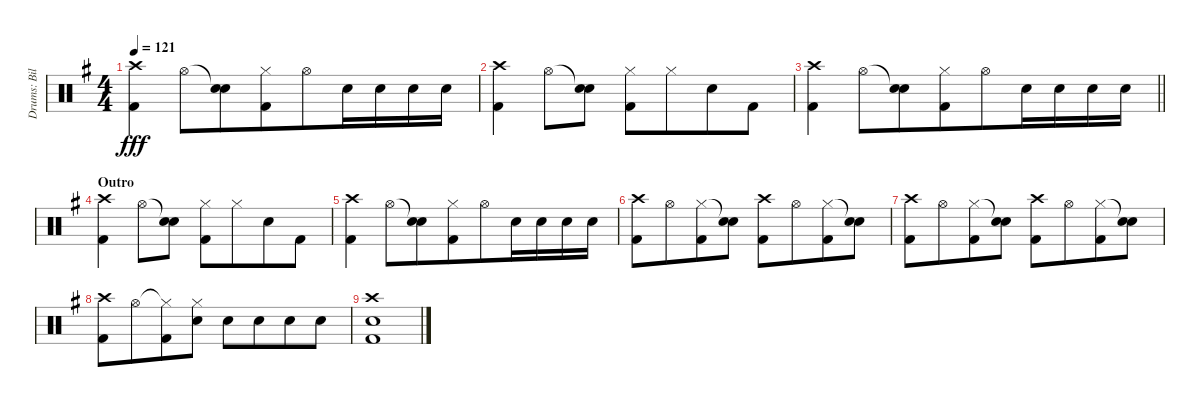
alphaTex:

\track ("Drums: Bill" "Drums: Bil") {instrument percussion}
\staff {score}
\articulation defaults
\ts (4 4)
\tempo 121
\clef neutral
\ks g
("Crash high (hit)" "Kick (hit) 2").4{dy fff beam merge} "Hi-Hat (open)".8{beam merge} ("Snare (hit)"{t} "Electric Snare (hit)").8{beam merge} ("Hi-Hat (closed)" "Kick (hit) 2").8{beam merge} "Hi-Hat (open)".8{beam merge} "Electric Snare (hit)".16{beam merge} "Electric Snare (hit)".16{beam merge} "Electric Snare (hit)".16{beam merge} "Electric Snare (hit)".16 |
("Crash high (hit)" "Kick (hit) 2").4{beam merge} "Hi-Hat (open)".8 ("Snare (hit)"{t} "Electric Snare (hit)").8 ("Hi-Hat (closed)" "Kick (hit) 2").8 "Hi-Hat (closed)".8{beam merge} "Electric Snare (hit)".8 "Kick (hit) 2".8 |
\barLineRight lightlight
("Crash high (hit)" "Kick (hit) 2").4{beam merge} "Hi-Hat (open)".8{beam merge} ("Snare (hit)"{t} "Electric Snare (hit)").8{beam merge} ("Hi-Hat (closed)" "Kick (hit) 2").8{beam merge} "Hi-Hat (open)".8{beam merge} "Electric Snare (hit)".16{beam merge} "Electric Snare (hit)".16{beam merge} "Electric Snare (hit)".16{beam merge} "Electric Snare (hit)".16 |
\section ("" "Outro")
("Crash high (hit)" "Kick (hit) 2").4{beam merge} "Hi-Hat (open)".8 ("Snare (hit)"{t} "Electric Snare (hit)").8 ("Hi-Hat (closed)" "Kick (hit) 2").8 "Hi-Hat (closed)".8{beam merge} "Electric Snare (hit)".8 "Kick (hit) 2".8 |
("Crash high (hit)" "Kick (hit) 2").4{beam merge} "Hi-Hat (open)".8{beam merge} ("Snare (hit)"{t} "Electric Snare (hit)").8{beam merge} ("Hi-Hat (closed)" "Kick (hit) 2").8{beam merge} "Hi-Hat (open)".8{beam merge} "Electric Snare (hit)".16{beam merge} "Electric Snare (hit)".16{beam merge} "Electric Snare (hit)".16{beam merge} "Electric Snare (hit)".16 |
("Crash high (hit)" "Kick (hit) 2").8{beam merge} "Hi-Hat (open)".8{beam merge} ("Hi-Hat (closed)" "Kick (hit) 2").8{beam merge} ("Snare (hit)"{t} "Electric Snare (hit)").8 ("Crash high (hit)" "Kick (hit) 2").8{beam merge} "Hi-Hat (open)".8{beam merge} ("Hi-Hat (closed)" "Kick (hit) 2").8{beam merge} ("Snare (hit)"{t} "Electric Snare (hit)").8 |
("Crash high (hit)" "Kick (hit) 2").8{beam merge} "Hi-Hat (open)".8{beam merge} ("Hi-Hat (closed)" "Kick (hit) 2").8{beam merge} ("Snare (hit)"{t} "Electric Snare (hit)").8 ("Crash high (hit)" "Kick (hit) 2").8{beam merge} "Hi-Hat (open)".8{beam merge} ("Hi-Hat (closed)" "Kick (hit) 2").8{beam merge} ("Snare (hit)"{t} "Electric Snare (hit)").8 |
("Crash high (hit)" "Kick (hit) 2").8{beam Down beam merge} "Hi-Hat (open)".8{beam Down beam merge} ("Hi-Hat (closed)"{t} "Kick (hit) 2").8{beam Down beam merge} ("Hi-Hat (closed)" "Electric Snare (hit)").8{beam Down beam split} "Electric Snare (hit)".8{beam Down beam merge} "Electric Snare (hit)".8{beam Down beam merge} "Electric Snare (hit)".8{beam Down beam merge} "Electric Snare (hit)".8{beam Down} |
("Crash high (hit)" "Electric Snare (hit)" "Kick (hit) 2").1
